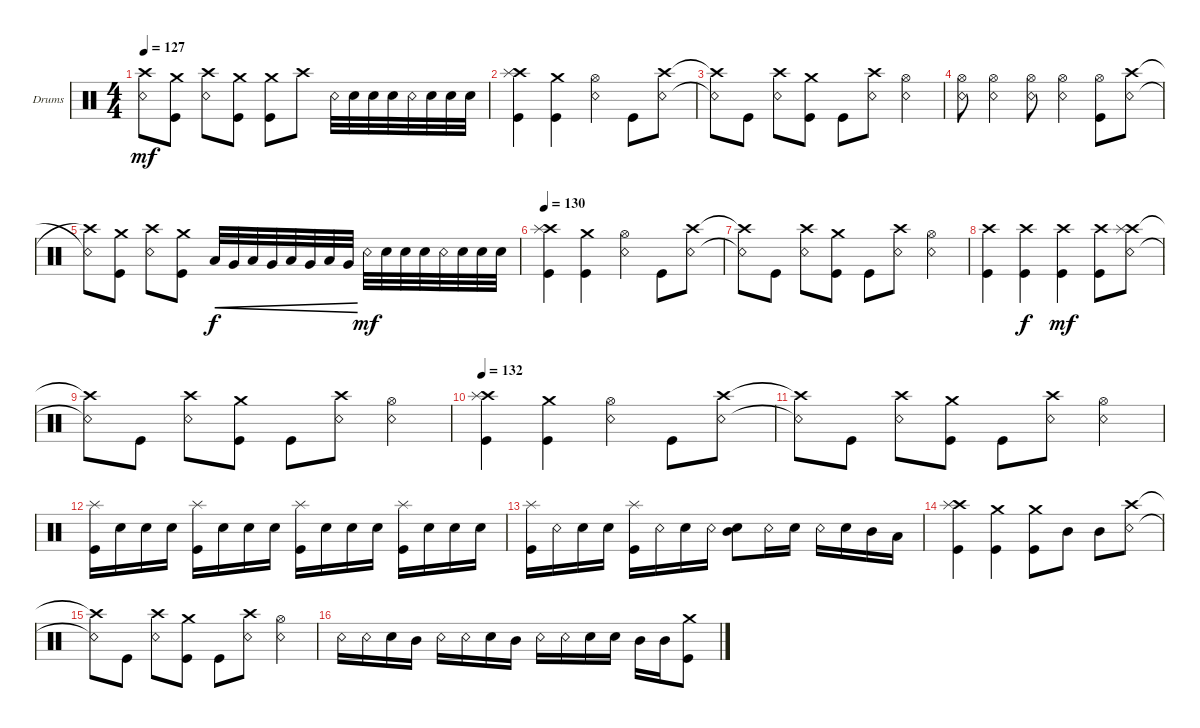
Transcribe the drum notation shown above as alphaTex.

\defaultSystemsLayout 4
\bracketExtendMode groupsimilarinstruments
\firstSystemTrackNameOrientation horizontal
\otherSystemsTrackNameOrientation horizontal
\track ("Drumkit" "Drums") {instrument percussion}
\staff {score}
\articulation defaults
\ts (4 4)
\tempo 127
\clef neutral
\ks c
("Crash high (hit)"{t} "Snare (rim shot)"{t}).8{dy mf} ("Kick (hit)" "Crash medium (hit)").8 ("Snare (rim shot)" "Crash high (hit)").8 ("Kick (hit)" "Crash medium (hit)").8 ("Kick (hit)" "Crash medium (hit)").8 "Crash high (hit)".8 "Snare (rim shot)".32 "Snare (hit) 2".32 "Snare (hit) 2".32 "Snare (hit) 2".32 "Snare (rim shot)".32 "Snare (hit) 2".32 "Snare (hit) 2".32 "Snare (hit) 2".32 |
("Kick (hit)" "Crash high (hit)" "Splash (hit)").4 ("Crash medium (hit)" "Kick (hit)").4 ("Snare (rim shot)" "Hi-Hat (open)").4 "Kick (hit)".8 ("Crash high (hit)" "Snare (rim shot)").8 |
("Crash high (hit)"{t} "Snare (rim shot)"{t}).8 "Kick (hit)".8 ("Crash high (hit)" "Snare (rim shot)").8 ("Kick (hit)" "Crash medium (hit)").8 "Kick (hit)".8 ("Crash high (hit)" "Snare (rim shot)").8 ("Snare (rim shot)" "Hi-Hat (open)").4 |
("Snare (rim shot)" "Hi-Hat (open)").8 ("Snare (rim shot)" "Hi-Hat (open)").4 ("Snare (rim shot)" "Hi-Hat (open)").8 ("Snare (rim shot)" "Hi-Hat (open)").4 ("Hi-Hat (open)" "Kick (hit)").8 ("Snare (rim shot)" "Crash high (hit)").8 |
("Crash high (hit)"{t} "Snare (rim shot)"{t}).8 ("Kick (hit)" "Crash medium (hit)").8 ("Snare (rim shot)" "Crash high (hit)").8 ("Kick (hit)" "Crash medium (hit)").8 "Low Tom (hit)".32{cre dy f} "Very Low Tom (hit)".32{cre} "Low Tom (hit)".32{cre} "Very Low Tom (hit)".32{cre} "Low Tom (hit)".32{cre} "Very Low Tom (hit)".32{cre} "Low Tom (hit)".32{cre} "Very Low Tom (hit)".32{cre} "Snare (rim shot)".32{dy mf} "Snare (hit) 2".32 "Snare (hit) 2".32 "Snare (hit) 2".32 "Snare (rim shot)".32 "Snare (hit) 2".32 "Snare (hit) 2".32 "Snare (hit) 2".32 |
\tempo 130
("Kick (hit)" "Crash high (hit)" "Splash (hit)").4 ("Crash medium (hit)" "Kick (hit)").4 ("Snare (rim shot)" "Hi-Hat (open)").4 "Kick (hit)".8 ("Crash high (hit)" "Snare (rim shot)").8 |
("Crash high (hit)"{t} "Snare (rim shot)"{t}).8 "Kick (hit)".8 ("Crash high (hit)" "Snare (rim shot)").8 ("Kick (hit)" "Crash medium (hit)").8 "Kick (hit)".8 ("Crash high (hit)" "Snare (rim shot)").8 ("Snare (rim shot)" "Hi-Hat (open)").4 |
("Kick (hit)" "Crash high (hit)").4 ("Kick (hit)" "Crash high (hit)").4{dy f} ("Kick (hit)" "Crash high (hit)").4{dy mf} ("Kick (hit)" "Crash high (hit)").8 ("Crash high (hit)" "Snare (rim shot)" "Splash (hit)").8 |
("Crash high (hit)"{t} "Snare (rim shot)"{t}).8 "Kick (hit)".8 ("Crash high (hit)" "Snare (rim shot)").8 ("Kick (hit)" "Crash medium (hit)").8 "Kick (hit)".8 ("Crash high (hit)" "Snare (rim shot)").8 ("Snare (rim shot)" "Hi-Hat (open)").4 |
\tempo 132
("Kick (hit)" "Crash high (hit)" "Splash (hit)").4 ("Crash medium (hit)" "Kick (hit)").4 ("Snare (rim shot)" "Hi-Hat (open)").4 "Kick (hit)".8 ("Crash high (hit)" "Snare (rim shot)").8 |
("Crash high (hit)"{t} "Snare (rim shot)"{t}).8 "Kick (hit)".8 ("Crash high (hit)" "Snare (rim shot)").8 ("Kick (hit)" "Crash medium (hit)").8 "Kick (hit)".8 ("Crash high (hit)" "Snare (rim shot)").8 ("Snare (rim shot)" "Hi-Hat (open)").4 |
("Kick (hit)" "Splash (hit)").16 "Snare (hit) 2".16 "Snare (hit) 2".16 "Snare (hit) 2".16 ("Kick (hit)" "Splash (hit)").16 "Snare (hit) 2".16 "Snare (hit) 2".16 "Snare (hit) 2".16 ("Kick (hit)" "Splash (hit)").16 "Snare (hit) 2".16 "Snare (hit) 2".16 "Snare (hit) 2".16 ("Kick (hit)" "Splash (hit)").16 "Snare (hit) 2".16 "Snare (hit) 2".16 "Snare (hit) 2".16 |
("Kick (hit)" "Splash (hit)").16 "Snare (rim shot)".16 "Snare (hit) 2".16 "Snare (hit) 2".16 ("Kick (hit)" "Splash (hit)").16 "Snare (rim shot)".16 "Snare (hit) 2".16 "Snare (rim shot)".16 ("Snare (hit) 2" "Mid Tom (hit)").8 "Snare (rim shot)".16 "Snare (hit) 2".16 "Snare (rim shot)".16 "Snare (hit) 2".16 "Mid Tom (hit)".16 "Low Tom (hit)".16 |
("Kick (hit)" "Crash high (hit)" "Splash (hit)").4 ("Crash medium (hit)" "Kick (hit)").4 ("Crash medium (hit)" "Kick (hit)").8 "Mid Tom (hit)".8 "Mid Tom (hit)".8 ("Crash high (hit)" "Snare (rim shot)").8 |
("Crash high (hit)"{t} "Snare (rim shot)"{t}).8 "Kick (hit)".8 ("Crash high (hit)" "Snare (rim shot)").8 ("Kick (hit)" "Crash medium (hit)").8 "Kick (hit)".8 ("Crash high (hit)" "Snare (rim shot)").8 ("Snare (rim shot)" "Hi-Hat (open)").4 |
"Snare (rim shot)".16 "Snare (rim shot)".16 "Snare (hit) 2".16 "Mid Tom (hit)".16 "Snare (rim shot)".16 "Snare (rim shot)".16 "Snare (hit) 2".16 "Mid Tom (hit)".16 "Snare (rim shot)".16 "Snare (rim shot)".16 "Snare (hit) 2".16 "Snare (hit) 2".16 "Mid Tom (hit)".16 "Mid Tom (hit)".16 ("Kick (hit)" "Crash medium (hit)").8
